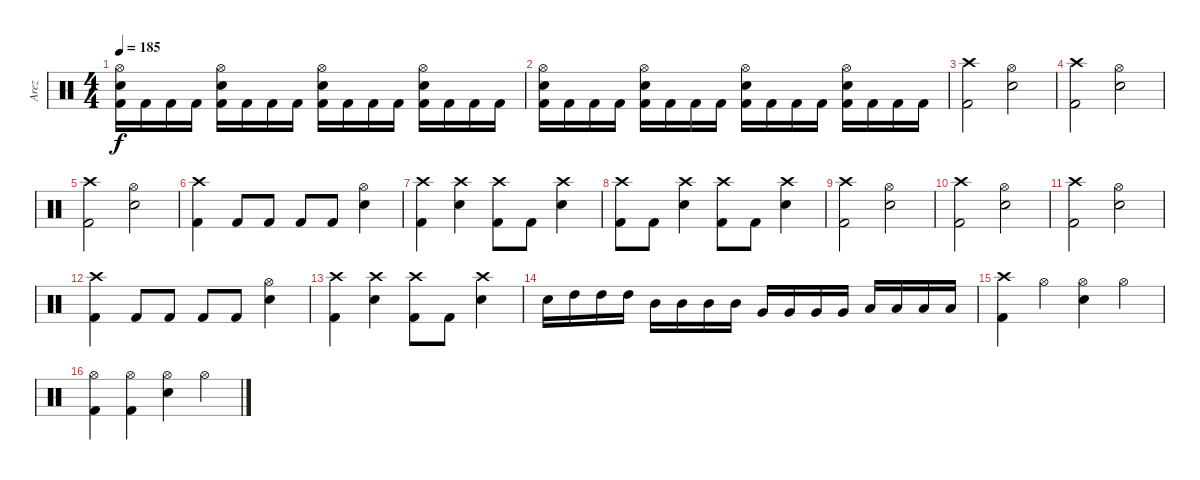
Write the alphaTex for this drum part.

\track ("Arez" "Arez") {instrument percussion}
\staff {score}
\articulation defaults
\ts (4 4)
\tempo 185
\clef neutral
\ks c
("Kick (hit) 2" "Electric Snare (hit)" "Hi-Hat (open)").16{dy f} "Kick (hit) 2".16 "Kick (hit) 2".16 "Kick (hit) 2".16 ("Kick (hit) 2" "Hi-Hat (open)" "Electric Snare (hit)").16 "Kick (hit) 2".16 "Kick (hit) 2".16 "Kick (hit) 2".16 ("Kick (hit) 2" "Electric Snare (hit)" "Hi-Hat (open)").16 "Kick (hit) 2".16 "Kick (hit) 2".16 "Kick (hit) 2".16 ("Kick (hit) 2" "Electric Snare (hit)" "Hi-Hat (open)").16 "Kick (hit) 2".16 "Kick (hit) 2".16 "Kick (hit) 2".16 |
("Kick (hit) 2" "Electric Snare (hit)" "Hi-Hat (open)").16 "Kick (hit) 2".16 "Kick (hit) 2".16 "Kick (hit) 2".16 ("Kick (hit) 2" "Hi-Hat (open)" "Electric Snare (hit)").16 "Kick (hit) 2".16 "Kick (hit) 2".16 "Kick (hit) 2".16 ("Kick (hit) 2" "Electric Snare (hit)" "Hi-Hat (open)").16 "Kick (hit) 2".16 "Kick (hit) 2".16 "Kick (hit) 2".16 ("Kick (hit) 2" "Electric Snare (hit)" "Hi-Hat (open)").16 "Kick (hit) 2".16 "Kick (hit) 2".16 "Kick (hit) 2".16 |
("Crash high (hit)" "Kick (hit) 2").2 ("Electric Snare (hit)" "Hi-Hat (open)").2 |
("Crash high (hit)" "Kick (hit) 2").2 ("Electric Snare (hit)" "Hi-Hat (open)").2 |
("Crash high (hit)" "Kick (hit) 2").2 ("Electric Snare (hit)" "Hi-Hat (open)").2 |
("Crash high (hit)" "Kick (hit) 2").4 "Kick (hit) 2".8 "Kick (hit) 2".8 "Kick (hit) 2".8 "Kick (hit) 2".8 ("Electric Snare (hit)" "Hi-Hat (open)").4 |
("Crash high (hit)" "Kick (hit) 2").4 ("Electric Snare (hit)" "Crash high (hit)").4 ("Crash high (hit)" "Kick (hit) 2").8 "Kick (hit) 2".8 ("Electric Snare (hit)" "Crash high (hit)").4 |
("Crash high (hit)" "Kick (hit) 2").8 "Kick (hit) 2".8 ("Electric Snare (hit)" "Crash high (hit)").4 ("Crash high (hit)" "Kick (hit) 2").8 "Kick (hit) 2".8 ("Electric Snare (hit)" "Crash high (hit)").4 |
("Crash high (hit)" "Kick (hit) 2").2 ("Electric Snare (hit)" "Hi-Hat (open)").2 |
("Crash high (hit)" "Kick (hit) 2").2 ("Electric Snare (hit)" "Hi-Hat (open)").2 |
("Crash high (hit)" "Kick (hit) 2").2 ("Electric Snare (hit)" "Hi-Hat (open)").2 |
("Crash high (hit)" "Kick (hit) 2").4 "Kick (hit) 2".8 "Kick (hit) 2".8 "Kick (hit) 2".8 "Kick (hit) 2".8 ("Electric Snare (hit)" "Hi-Hat (open)").4 |
("Crash high (hit)" "Kick (hit) 2").4 ("Electric Snare (hit)" "Crash high (hit)").4 ("Crash high (hit)" "Kick (hit) 2").8 "Kick (hit) 2".8 ("Electric Snare (hit)" "Crash high (hit)").4 |
"Electric Snare (hit)".16 "High Tom (hit)".16 "High Tom (hit)".16 "High Tom (hit)".16 "Mid Tom (hit)".16 "Mid Tom (hit)".16 "Mid Tom (hit)".16 "Mid Tom (hit)".16 "Very Low Tom (hit)".16 "Very Low Tom (hit)".16 "Very Low Tom (hit)".16 "Very Low Tom (hit)".16 "Low Floor Tom (hit)".16 "Low Floor Tom (hit)".16 "Low Floor Tom (hit)".16 "Low Floor Tom (hit)".16 |
("Crash high (hit)" "Kick (hit) 2").4 "Hi-Hat (open)".4 ("Electric Snare (hit)" "Hi-Hat (open)").4 "Hi-Hat (open)".4 |
("Kick (hit) 2" "Hi-Hat (open)").4 ("Kick (hit) 2" "Hi-Hat (open)").4 ("Hi-Hat (open)" "Electric Snare (hit)").4 "Hi-Hat (open)".4
